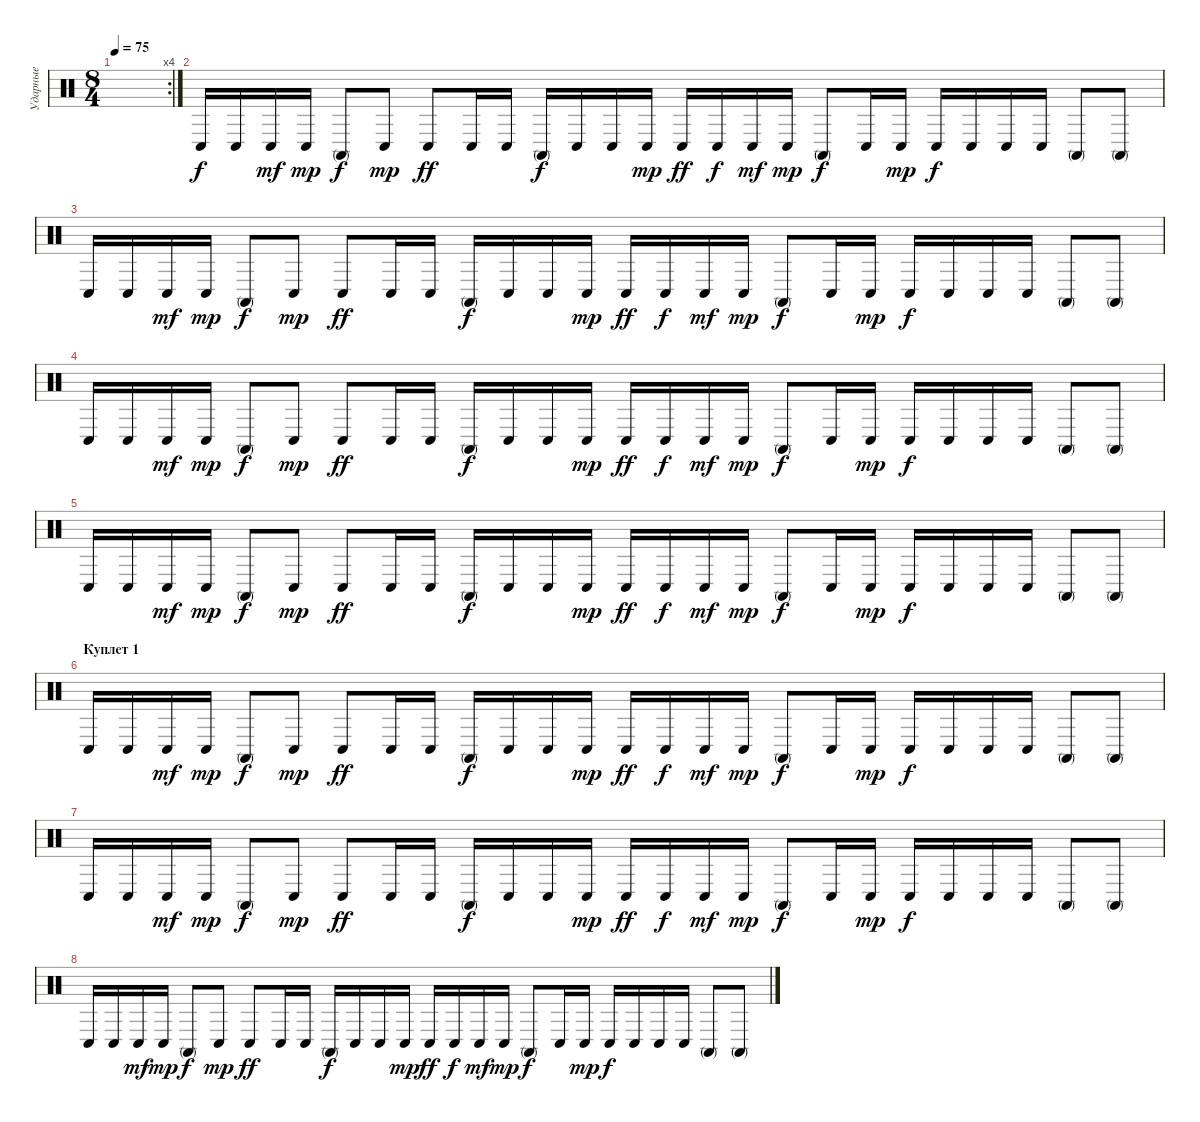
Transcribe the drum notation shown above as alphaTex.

\track ("Ударные" "Ударные") {instrument percussion}
\staff {score}
\articulation defaults
\rc 4
\ts (8 4)
\tempo 75
\clef neutral
\ks c
|
"Conga low (hit)".16 "Conga low (hit)".16 "Conga low (hit)".16{dy mf} "Conga low (hit)".16{dy mp} "Conga high (mute)".8{dy f} "Conga low (hit)".8{dy mp} "Conga low (hit)".8{dy ff} "Conga low (hit)".16 "Conga low (hit)".16 "Conga high (mute)".16{dy f} "Conga low (hit)".16 "Conga low (hit)".16 "Conga low (hit)".16{dy mp} "Conga low (hit)".16{dy ff} "Conga low (hit)".16{dy f} "Conga low (hit)".16{dy mf} "Conga low (hit)".16{dy mp} "Conga high (mute)".8{dy f} "Conga low (hit)".16 "Conga low (hit)".16{dy mp} "Conga low (hit)".16{dy f} "Conga low (hit)".16 "Conga low (hit)".16 "Conga low (hit)".16 "Conga high (mute)".8 "Conga high (mute)".8 |
"Conga low (hit)".16 "Conga low (hit)".16 "Conga low (hit)".16{dy mf} "Conga low (hit)".16{dy mp} "Conga high (mute)".8{dy f} "Conga low (hit)".8{dy mp} "Conga low (hit)".8{dy ff} "Conga low (hit)".16 "Conga low (hit)".16 "Conga high (mute)".16{dy f} "Conga low (hit)".16 "Conga low (hit)".16 "Conga low (hit)".16{dy mp} "Conga low (hit)".16{dy ff} "Conga low (hit)".16{dy f} "Conga low (hit)".16{dy mf} "Conga low (hit)".16{dy mp} "Conga high (mute)".8{dy f} "Conga low (hit)".16 "Conga low (hit)".16{dy mp} "Conga low (hit)".16{dy f} "Conga low (hit)".16 "Conga low (hit)".16 "Conga low (hit)".16 "Conga high (mute)".8 "Conga high (mute)".8 |
"Conga low (hit)".16 "Conga low (hit)".16 "Conga low (hit)".16{dy mf} "Conga low (hit)".16{dy mp} "Conga high (mute)".8{dy f} "Conga low (hit)".8{dy mp} "Conga low (hit)".8{dy ff} "Conga low (hit)".16 "Conga low (hit)".16 "Conga high (mute)".16{dy f} "Conga low (hit)".16 "Conga low (hit)".16 "Conga low (hit)".16{dy mp} "Conga low (hit)".16{dy ff} "Conga low (hit)".16{dy f} "Conga low (hit)".16{dy mf} "Conga low (hit)".16{dy mp} "Conga high (mute)".8{dy f} "Conga low (hit)".16 "Conga low (hit)".16{dy mp} "Conga low (hit)".16{dy f} "Conga low (hit)".16 "Conga low (hit)".16 "Conga low (hit)".16 "Conga high (mute)".8 "Conga high (mute)".8 |
"Conga low (hit)".16 "Conga low (hit)".16 "Conga low (hit)".16{dy mf} "Conga low (hit)".16{dy mp} "Conga high (mute)".8{dy f} "Conga low (hit)".8{dy mp} "Conga low (hit)".8{dy ff} "Conga low (hit)".16 "Conga low (hit)".16 "Conga high (mute)".16{dy f} "Conga low (hit)".16 "Conga low (hit)".16 "Conga low (hit)".16{dy mp} "Conga low (hit)".16{dy ff} "Conga low (hit)".16{dy f} "Conga low (hit)".16{dy mf} "Conga low (hit)".16{dy mp} "Conga high (mute)".8{dy f} "Conga low (hit)".16 "Conga low (hit)".16{dy mp} "Conga low (hit)".16{dy f} "Conga low (hit)".16 "Conga low (hit)".16 "Conga low (hit)".16 "Conga high (mute)".8 "Conga high (mute)".8 |
\section ("" "Куплет 1")
"Conga low (hit)".16 "Conga low (hit)".16 "Conga low (hit)".16{dy mf} "Conga low (hit)".16{dy mp} "Conga high (mute)".8{dy f} "Conga low (hit)".8{dy mp} "Conga low (hit)".8{dy ff} "Conga low (hit)".16 "Conga low (hit)".16 "Conga high (mute)".16{dy f} "Conga low (hit)".16 "Conga low (hit)".16 "Conga low (hit)".16{dy mp} "Conga low (hit)".16{dy ff} "Conga low (hit)".16{dy f} "Conga low (hit)".16{dy mf} "Conga low (hit)".16{dy mp} "Conga high (mute)".8{dy f} "Conga low (hit)".16 "Conga low (hit)".16{dy mp} "Conga low (hit)".16{dy f} "Conga low (hit)".16 "Conga low (hit)".16 "Conga low (hit)".16 "Conga high (mute)".8 "Conga high (mute)".8 |
"Conga low (hit)".16 "Conga low (hit)".16 "Conga low (hit)".16{dy mf} "Conga low (hit)".16{dy mp} "Conga high (mute)".8{dy f} "Conga low (hit)".8{dy mp} "Conga low (hit)".8{dy ff} "Conga low (hit)".16 "Conga low (hit)".16 "Conga high (mute)".16{dy f} "Conga low (hit)".16 "Conga low (hit)".16 "Conga low (hit)".16{dy mp} "Conga low (hit)".16{dy ff} "Conga low (hit)".16{dy f} "Conga low (hit)".16{dy mf} "Conga low (hit)".16{dy mp} "Conga high (mute)".8{dy f} "Conga low (hit)".16 "Conga low (hit)".16{dy mp} "Conga low (hit)".16{dy f} "Conga low (hit)".16 "Conga low (hit)".16 "Conga low (hit)".16 "Conga high (mute)".8 "Conga high (mute)".8 |
"Conga low (hit)".16 "Conga low (hit)".16 "Conga low (hit)".16{dy mf} "Conga low (hit)".16{dy mp} "Conga high (mute)".8{dy f} "Conga low (hit)".8{dy mp} "Conga low (hit)".8{dy ff} "Conga low (hit)".16 "Conga low (hit)".16 "Conga high (mute)".16{dy f} "Conga low (hit)".16 "Conga low (hit)".16 "Conga low (hit)".16{dy mp} "Conga low (hit)".16{dy ff} "Conga low (hit)".16{dy f} "Conga low (hit)".16{dy mf} "Conga low (hit)".16{dy mp} "Conga high (mute)".8{dy f} "Conga low (hit)".16 "Conga low (hit)".16{dy mp} "Conga low (hit)".16{dy f} "Conga low (hit)".16 "Conga low (hit)".16 "Conga low (hit)".16 "Conga high (mute)".8 "Conga high (mute)".8
